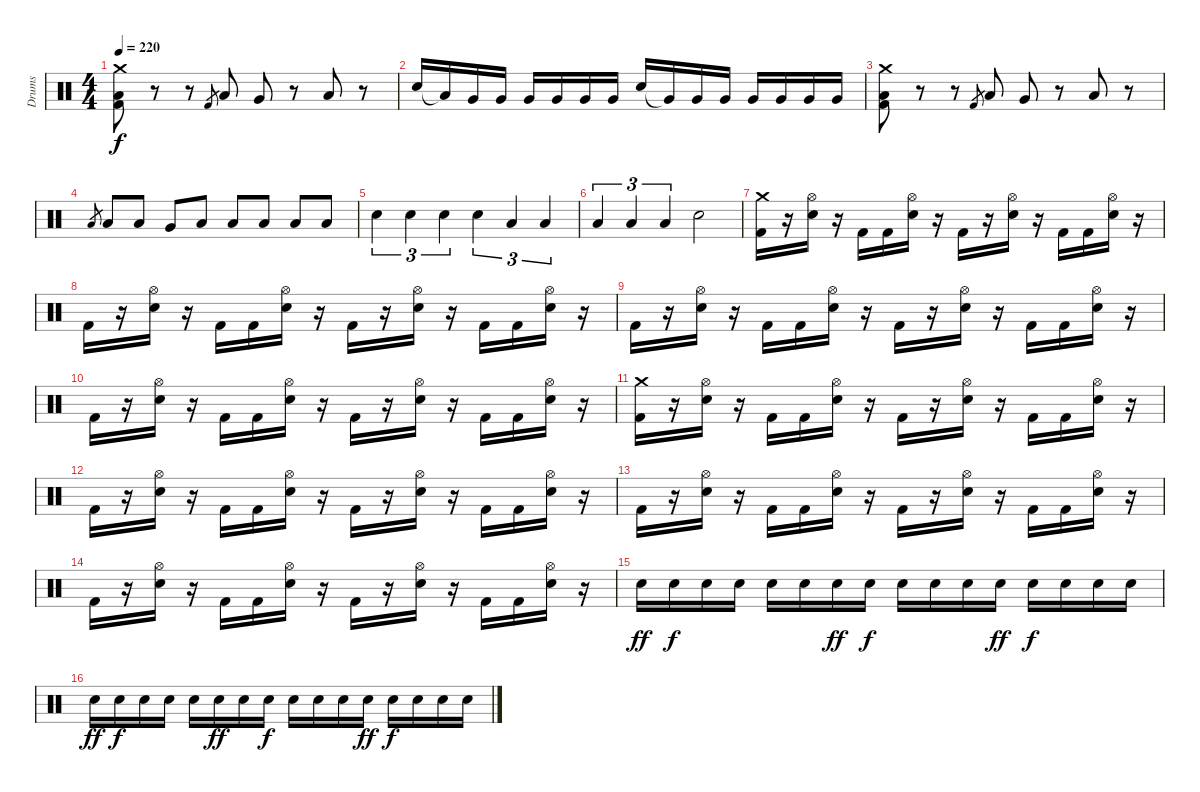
\track ("Drums" "Drums") {instrument percussion}
\staff {score}
\articulation defaults
\ts (4 4)
\tempo 220
\clef neutral
\ks c
("Crash medium (hit)" "Low Tom (hit)" "Kick (hit) 2").8{dy f} r.8 r.8 "Kick (hit) 2".8{gr} "Low Tom (hit)".8 "Very Low Tom (hit)".8 r.8 "Low Tom (hit)".8 r.8 |
"Snare (hit) 2".16 "Low Tom (hit)"{t}.16 "Very Low Tom (hit)".16 "Very Low Tom (hit)".16 "Very Low Tom (hit)".16 "Very Low Tom (hit)".16 "Very Low Tom (hit)".16 "Very Low Tom (hit)".16 "Snare (hit) 2".16 "Very Low Tom (hit)"{t}.16 "Very Low Tom (hit)".16 "Very Low Tom (hit)".16 "Very Low Tom (hit)".16 "Very Low Tom (hit)".16 "Very Low Tom (hit)".16 "Very Low Tom (hit)".16 |
("Crash medium (hit)" "Low Tom (hit)" "Kick (hit) 2").8 r.8 r.8 "Kick (hit) 2".8{gr} "Low Tom (hit)".8 "Very Low Tom (hit)".8 r.8 "Low Tom (hit)".8 r.8 |
"Low Tom (hit)".8{gr} "Low Tom (hit)".8 "Low Tom (hit)".8 "Very Low Tom (hit)".8 "Low Tom (hit)".8 "Low Tom (hit)".8 "Low Tom (hit)".8 "Low Floor Tom (hit)".8 "Low Floor Tom (hit)".8 |
"Snare (hit) 2".4{tu (3 2)} "Snare (hit) 2".4{tu (3 2)} "Snare (hit) 2".4{tu (3 2)} "Snare (hit) 2".4{tu (3 2)} "Low Floor Tom (hit)".4{tu (3 2)} "Low Floor Tom (hit)".4{tu (3 2)} |
"Low Floor Tom (hit)".4{tu (3 2)} "Low Floor Tom (hit)".4{tu (3 2)} "Low Floor Tom (hit)".4{tu (3 2)} "Snare (hit) 2".2 |
("Crash medium (hit)" "Kick (hit) 2").16 r.16 ("Hi-Hat (open)" "Snare (hit) 2").16 r.16 "Kick (hit) 2".16 "Kick (hit) 2".16 ("Hi-Hat (open)" "Snare (hit) 2").16 r.16 "Kick (hit) 2".16 r.16 ("Hi-Hat (open)" "Snare (hit) 2").16 r.16 "Kick (hit) 2".16 "Kick (hit) 2".16 ("Hi-Hat (open)" "Snare (hit) 2").16 r.16 |
"Kick (hit) 2".16 r.16 ("Hi-Hat (open)" "Snare (hit) 2").16 r.16 "Kick (hit) 2".16 "Kick (hit) 2".16 ("Hi-Hat (open)" "Snare (hit) 2").16 r.16 "Kick (hit) 2".16 r.16 ("Hi-Hat (open)" "Snare (hit) 2").16 r.16 "Kick (hit) 2".16 "Kick (hit) 2".16 ("Hi-Hat (open)" "Snare (hit) 2").16 r.16 |
"Kick (hit) 2".16 r.16 ("Hi-Hat (open)" "Snare (hit) 2").16 r.16 "Kick (hit) 2".16 "Kick (hit) 2".16 ("Hi-Hat (open)" "Snare (hit) 2").16 r.16 "Kick (hit) 2".16 r.16 ("Hi-Hat (open)" "Snare (hit) 2").16 r.16 "Kick (hit) 2".16 "Kick (hit) 2".16 ("Hi-Hat (open)" "Snare (hit) 2").16 r.16 |
"Kick (hit) 2".16 r.16 ("Hi-Hat (open)" "Snare (hit) 2").16 r.16 "Kick (hit) 2".16 "Kick (hit) 2".16 ("Hi-Hat (open)" "Snare (hit) 2").16 r.16 "Kick (hit) 2".16 r.16 ("Hi-Hat (open)" "Snare (hit) 2").16 r.16 "Kick (hit) 2".16 "Kick (hit) 2".16 ("Hi-Hat (open)" "Snare (hit) 2").16 r.16 |
("Crash medium (hit)" "Kick (hit) 2").16 r.16 ("Hi-Hat (open)" "Snare (hit) 2").16 r.16 "Kick (hit) 2".16 "Kick (hit) 2".16 ("Hi-Hat (open)" "Snare (hit) 2").16 r.16 "Kick (hit) 2".16 r.16 ("Hi-Hat (open)" "Snare (hit) 2").16 r.16 "Kick (hit) 2".16 "Kick (hit) 2".16 ("Hi-Hat (open)" "Snare (hit) 2").16 r.16 |
"Kick (hit) 2".16 r.16 ("Hi-Hat (open)" "Snare (hit) 2").16 r.16 "Kick (hit) 2".16 "Kick (hit) 2".16 ("Hi-Hat (open)" "Snare (hit) 2").16 r.16 "Kick (hit) 2".16 r.16 ("Hi-Hat (open)" "Snare (hit) 2").16 r.16 "Kick (hit) 2".16 "Kick (hit) 2".16 ("Hi-Hat (open)" "Snare (hit) 2").16 r.16 |
"Kick (hit) 2".16 r.16 ("Hi-Hat (open)" "Snare (hit) 2").16 r.16 "Kick (hit) 2".16 "Kick (hit) 2".16 ("Hi-Hat (open)" "Snare (hit) 2").16 r.16 "Kick (hit) 2".16 r.16 ("Hi-Hat (open)" "Snare (hit) 2").16 r.16 "Kick (hit) 2".16 "Kick (hit) 2".16 ("Hi-Hat (open)" "Snare (hit) 2").16 r.16 |
"Kick (hit) 2".16 r.16 ("Hi-Hat (open)" "Snare (hit) 2").16 r.16 "Kick (hit) 2".16 "Kick (hit) 2".16 ("Hi-Hat (open)" "Snare (hit) 2").16 r.16 "Kick (hit) 2".16 r.16 ("Hi-Hat (open)" "Snare (hit) 2").16 r.16 "Kick (hit) 2".16 "Kick (hit) 2".16 ("Hi-Hat (open)" "Snare (hit) 2").16 r.16 |
"Snare (hit) 2".16{dy ff} "Snare (hit) 2".16{dy f} "Snare (hit) 2".16 "Snare (hit) 2".16 "Snare (hit) 2".16 "Snare (hit) 2".16 "Snare (hit) 2".16{dy ff} "Snare (hit) 2".16{dy f} "Snare (hit) 2".16 "Snare (hit) 2".16 "Snare (hit) 2".16 "Snare (hit) 2".16{dy ff} "Snare (hit) 2".16{dy f} "Snare (hit) 2".16 "Snare (hit) 2".16 "Snare (hit) 2".16 |
"Snare (hit) 2".16{dy ff} "Snare (hit) 2".16{dy f} "Snare (hit) 2".16 "Snare (hit) 2".16 "Snare (hit) 2".16 "Snare (hit) 2".16{dy ff} "Snare (hit) 2".16 "Snare (hit) 2".16{dy f} "Snare (hit) 2".16 "Snare (hit) 2".16 "Snare (hit) 2".16 "Snare (hit) 2".16{dy ff} "Snare (hit) 2".16{dy f} "Snare (hit) 2".16 "Snare (hit) 2".16 "Snare (hit) 2".16
